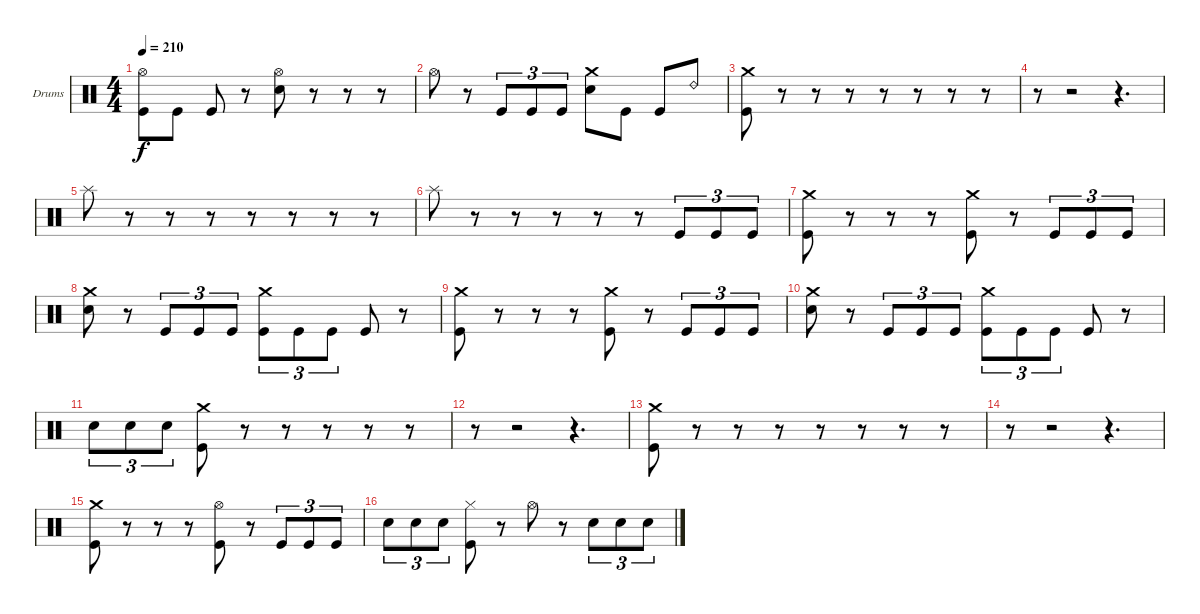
\bracketExtendMode groupsimilarinstruments
\firstSystemTrackNameOrientation horizontal
\otherSystemsTrackNameOrientation horizontal
\track ("Drumkit" "Drums") {instrument percussion}
\staff {score}
\articulation defaults
\ts (4 4)
\tempo 210
\clef neutral
\ks c
("Hi-Hat (open)" "Kick (hit)").8{dy f} "Kick (hit)".8 "Kick (hit)".8 r.8 ("Hi-Hat (open)" "Snare (hit) 2").8 r.8 r.8 r.8 |
"Hi-Hat (open)".8 r.8 "Kick (hit)".8{tu (3 2)} "Kick (hit)".8{tu (3 2)} "Kick (hit)".8{tu (3 2)} ("Crash medium (hit)" "Snare (hit) 2").8 "Kick (hit)".8 "Kick (hit)".8 "Ride (bell) 2".8 |
("Crash medium (hit)" "Kick (hit)").8 r.8 r.8 r.8 r.8 r.8 r.8 r.8 |
r.8 r.2 r.4{d} |
"Splash (hit)".8 r.8 r.8 r.8 r.8 r.8 r.8 r.8 |
"Splash (hit)".8 r.8 r.8 r.8 r.8 r.8 "Kick (hit)".8{tu (3 2)} "Kick (hit)".8{tu (3 2)} "Kick (hit)".8{tu (3 2)} |
("Crash medium (hit)" "Kick (hit)").8 r.8 r.8 r.8 ("Crash medium (hit)" "Kick (hit)").8 r.8 "Kick (hit)".8{tu (3 2)} "Kick (hit)".8{tu (3 2)} "Kick (hit)".8{tu (3 2)} |
("Crash medium (hit)" "Snare (hit) 2").8 r.8 "Kick (hit)".8{tu (3 2)} "Kick (hit)".8{tu (3 2)} "Kick (hit)".8{tu (3 2)} ("Crash medium (hit)" "Kick (hit)").8{tu (3 2)} "Kick (hit)".8{tu (3 2)} "Kick (hit)".8{tu (3 2)} "Kick (hit)".8 r.8 |
("Crash medium (hit)" "Kick (hit)").8 r.8 r.8 r.8 ("Crash medium (hit)" "Kick (hit)").8 r.8 "Kick (hit)".8{tu (3 2)} "Kick (hit)".8{tu (3 2)} "Kick (hit)".8{tu (3 2)} |
("Crash medium (hit)" "Snare (hit) 2").8 r.8 "Kick (hit)".8{tu (3 2)} "Kick (hit)".8{tu (3 2)} "Kick (hit)".8{tu (3 2)} ("Crash medium (hit)" "Kick (hit)").8{tu (3 2)} "Kick (hit)".8{tu (3 2)} "Kick (hit)".8{tu (3 2)} "Kick (hit)".8 r.8 |
"Snare (hit) 2".8{tu (3 2)} "Snare (hit) 2".8{tu (3 2)} "Snare (hit) 2".8{tu (3 2)} ("Crash medium (hit)" "Kick (hit)").8 r.8 r.8 r.8 r.8 r.8 |
r.8 r.2 r.4{d} |
("Crash medium (hit)" "Kick (hit)").8 r.8 r.8 r.8 r.8 r.8 r.8 r.8 |
r.8 r.2 r.4{d} |
("Crash medium (hit)" "Kick (hit)").8 r.8 r.8 r.8 ("Hi-Hat (open)" "Kick (hit)").8 r.8 "Kick (hit)".8{tu (3 2)} "Kick (hit)".8{tu (3 2)} "Kick (hit)".8{tu (3 2)} |
"Snare (hit) 2".8{tu (3 2)} "Snare (hit) 2".8{tu (3 2)} "Snare (hit) 2".8{tu (3 2)} ("Hi-Hat (closed)" "Kick (hit)").8 r.8 "Hi-Hat (open)".8 r.8 "Snare (hit) 2".8{tu (3 2)} "Snare (hit) 2".8{tu (3 2)} "Snare (hit) 2".8{tu (3 2)}
